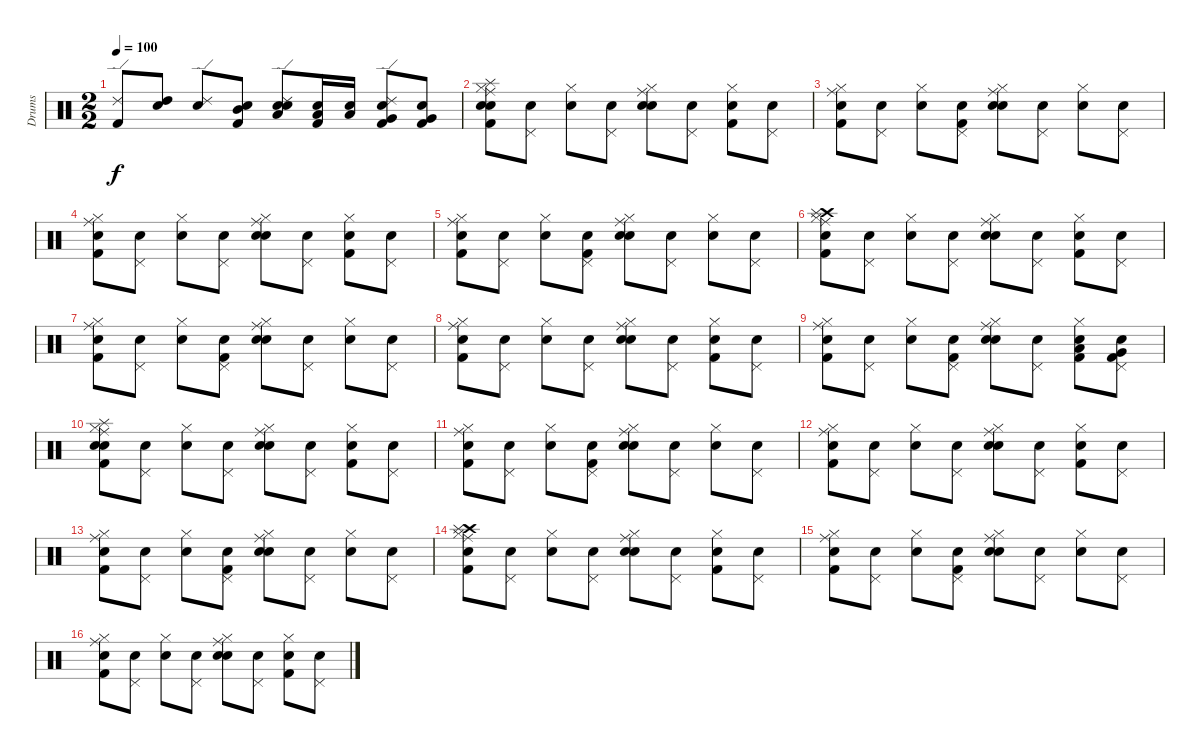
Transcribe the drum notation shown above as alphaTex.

\track ("Drums" "Drums") {instrument percussion}
\staff {score}
\articulation defaults
\ts (2 2)
\tempo 100
\clef neutral
\ks c
("Kick (hit) 2" "Ride (edge) 2").8{dy f} ("Snare (hit)" "High Tom (hit)").8 ("Snare (hit)" "Ride (edge) 2").8 ("Snare (hit)" "Mid Tom (hit)" "Kick (hit) 2").8 ("Snare (hit)" "Low Tom (hit)" "Snare (hit) 2" "Ride (edge) 2").8 ("Snare (hit)" "Low Tom (hit)" "Kick (hit) 2").16 ("Snare (hit)" "Low Tom (hit)").16 ("Snare (hit)" "Very Low Tom (hit)" "Kick (hit) 2" "Ride (edge) 2").8 ("Snare (hit)" "Very Low Tom (hit)" "Kick (hit) 2").8 |
("Snare (hit)" "Ride (middle)" "Hi-Hat (closed)" "Kick (hit) 2" "Snare (hit) 2" "Splash (hit)").8 ("Snare (hit)" "Pedal Hi-Hat (hit)").8 ("Snare (hit)" "Hi-Hat (closed)").8 ("Snare (hit)" "Pedal Hi-Hat (hit)").8 ("Snare (hit)" "Ride (middle)" "Hi-Hat (closed)" "Snare (hit) 2").8 ("Snare (hit)" "Pedal Hi-Hat (hit)").8 ("Snare (hit)" "Hi-Hat (closed)" "Kick (hit) 2").8 ("Snare (hit)" "Pedal Hi-Hat (hit)").8 |
("Snare (hit)" "Ride (middle)" "Hi-Hat (closed)" "Kick (hit) 2").8 ("Snare (hit)" "Pedal Hi-Hat (hit)").8 ("Snare (hit)" "Hi-Hat (closed)").8 ("Snare (hit)" "Pedal Hi-Hat (hit)" "Kick (hit) 2").8 ("Snare (hit)" "Ride (middle)" "Hi-Hat (closed)" "Snare (hit) 2").8 ("Snare (hit)" "Pedal Hi-Hat (hit)").8 ("Snare (hit)" "Hi-Hat (closed)").8 ("Snare (hit)" "Pedal Hi-Hat (hit)").8 |
("Snare (hit)" "Kick (hit) 2" "Ride (middle)" "Hi-Hat (closed)").8 ("Snare (hit)" "Pedal Hi-Hat (hit)").8 ("Snare (hit)" "Hi-Hat (closed)").8 ("Snare (hit)" "Pedal Hi-Hat (hit)").8 ("Snare (hit)" "Ride (middle)" "Hi-Hat (closed)" "Snare (hit) 2").8 ("Snare (hit)" "Pedal Hi-Hat (hit)").8 ("Snare (hit)" "Hi-Hat (closed)" "Kick (hit) 2").8 ("Snare (hit)" "Pedal Hi-Hat (hit)").8 |
("Snare (hit)" "Ride (middle)" "Hi-Hat (closed)" "Kick (hit) 2").8 ("Snare (hit)" "Pedal Hi-Hat (hit)").8 ("Snare (hit)" "Hi-Hat (closed)").8 ("Snare (hit)" "Pedal Hi-Hat (hit)" "Kick (hit) 2").8 ("Snare (hit)" "Ride (middle)" "Hi-Hat (closed)" "Snare (hit) 2").8 ("Snare (hit)" "Pedal Hi-Hat (hit)").8 ("Snare (hit)" "Hi-Hat (closed)").8 ("Snare (hit)" "Pedal Hi-Hat (hit)").8 |
("Snare (hit)" "Hi-Hat (closed)" "Ride (middle)" "Kick (hit) 2" "Crash high (hit)" "Splash (hit)").8 ("Snare (hit)" "Pedal Hi-Hat (hit)").8 ("Snare (hit)" "Hi-Hat (closed)").8 ("Snare (hit)" "Pedal Hi-Hat (hit)").8 ("Snare (hit)" "Ride (middle)" "Hi-Hat (closed)" "Snare (hit) 2").8 ("Snare (hit)" "Pedal Hi-Hat (hit)").8 ("Snare (hit)" "Hi-Hat (closed)" "Kick (hit) 2").8 ("Snare (hit)" "Pedal Hi-Hat (hit)").8 |
("Snare (hit)" "Ride (middle)" "Hi-Hat (closed)" "Kick (hit) 2").8 ("Snare (hit)" "Pedal Hi-Hat (hit)").8 ("Snare (hit)" "Hi-Hat (closed)").8 ("Snare (hit)" "Pedal Hi-Hat (hit)" "Kick (hit) 2").8 ("Snare (hit)" "Ride (middle)" "Hi-Hat (closed)" "Snare (hit) 2").8 ("Snare (hit)" "Pedal Hi-Hat (hit)").8 ("Snare (hit)" "Hi-Hat (closed)").8 ("Snare (hit)" "Pedal Hi-Hat (hit)").8 |
("Snare (hit)" "Kick (hit) 2" "Ride (middle)" "Hi-Hat (closed)").8 ("Snare (hit)" "Pedal Hi-Hat (hit)").8 ("Snare (hit)" "Hi-Hat (closed)").8 ("Snare (hit)" "Pedal Hi-Hat (hit)").8 ("Snare (hit)" "Ride (middle)" "Hi-Hat (closed)" "Snare (hit) 2").8 ("Snare (hit)" "Pedal Hi-Hat (hit)").8 ("Snare (hit)" "Hi-Hat (closed)" "Kick (hit) 2").8 ("Snare (hit)" "Pedal Hi-Hat (hit)").8 |
("Snare (hit)" "Ride (middle)" "Hi-Hat (closed)" "Kick (hit) 2").8 ("Snare (hit)" "Pedal Hi-Hat (hit)").8 ("Snare (hit)" "Hi-Hat (closed)").8 ("Snare (hit)" "Pedal Hi-Hat (hit)" "Kick (hit) 2").8 ("Snare (hit)" "Ride (middle)" "Hi-Hat (closed)" "Snare (hit) 2").8 ("Snare (hit)" "Pedal Hi-Hat (hit)").8 ("Snare (hit)" "Kick (hit) 2" "Low Tom (hit)" "Hi-Hat (closed)").8 ("Snare (hit)" "Very Low Tom (hit)" "Kick (hit) 2" "Pedal Hi-Hat (hit)").8 |
("Snare (hit)" "Ride (middle)" "Hi-Hat (closed)" "Kick (hit) 2" "Snare (hit) 2" "Splash (hit)").8 ("Snare (hit)" "Pedal Hi-Hat (hit)").8 ("Snare (hit)" "Hi-Hat (closed)").8 ("Snare (hit)" "Pedal Hi-Hat (hit)").8 ("Snare (hit)" "Ride (middle)" "Hi-Hat (closed)" "Snare (hit) 2").8 ("Snare (hit)" "Pedal Hi-Hat (hit)").8 ("Snare (hit)" "Hi-Hat (closed)" "Kick (hit) 2").8 ("Snare (hit)" "Pedal Hi-Hat (hit)").8 |
("Snare (hit)" "Ride (middle)" "Hi-Hat (closed)" "Kick (hit) 2").8 ("Snare (hit)" "Pedal Hi-Hat (hit)").8 ("Snare (hit)" "Hi-Hat (closed)").8 ("Snare (hit)" "Pedal Hi-Hat (hit)" "Kick (hit) 2").8 ("Snare (hit)" "Ride (middle)" "Hi-Hat (closed)" "Snare (hit) 2").8 ("Snare (hit)" "Pedal Hi-Hat (hit)").8 ("Snare (hit)" "Hi-Hat (closed)").8 ("Snare (hit)" "Pedal Hi-Hat (hit)").8 |
("Snare (hit)" "Kick (hit) 2" "Ride (middle)" "Hi-Hat (closed)").8 ("Snare (hit)" "Pedal Hi-Hat (hit)").8 ("Snare (hit)" "Hi-Hat (closed)").8 ("Snare (hit)" "Pedal Hi-Hat (hit)").8 ("Snare (hit)" "Ride (middle)" "Hi-Hat (closed)" "Snare (hit) 2").8 ("Snare (hit)" "Pedal Hi-Hat (hit)").8 ("Snare (hit)" "Hi-Hat (closed)" "Kick (hit) 2").8 ("Snare (hit)" "Pedal Hi-Hat (hit)").8 |
("Snare (hit)" "Ride (middle)" "Hi-Hat (closed)" "Kick (hit) 2").8 ("Snare (hit)" "Pedal Hi-Hat (hit)").8 ("Snare (hit)" "Hi-Hat (closed)").8 ("Snare (hit)" "Pedal Hi-Hat (hit)" "Kick (hit) 2").8 ("Snare (hit)" "Ride (middle)" "Hi-Hat (closed)" "Snare (hit) 2").8 ("Snare (hit)" "Pedal Hi-Hat (hit)").8 ("Snare (hit)" "Hi-Hat (closed)").8 ("Snare (hit)" "Pedal Hi-Hat (hit)").8 |
("Snare (hit)" "Hi-Hat (closed)" "Ride (middle)" "Kick (hit) 2" "Crash high (hit)" "Splash (hit)").8 ("Snare (hit)" "Pedal Hi-Hat (hit)").8 ("Snare (hit)" "Hi-Hat (closed)").8 ("Snare (hit)" "Pedal Hi-Hat (hit)").8 ("Snare (hit)" "Ride (middle)" "Hi-Hat (closed)" "Snare (hit) 2").8 ("Snare (hit)" "Pedal Hi-Hat (hit)").8 ("Snare (hit)" "Hi-Hat (closed)" "Kick (hit) 2").8 ("Snare (hit)" "Pedal Hi-Hat (hit)").8 |
("Snare (hit)" "Ride (middle)" "Hi-Hat (closed)" "Kick (hit) 2").8 ("Snare (hit)" "Pedal Hi-Hat (hit)").8 ("Snare (hit)" "Hi-Hat (closed)").8 ("Snare (hit)" "Pedal Hi-Hat (hit)" "Kick (hit) 2").8 ("Snare (hit)" "Ride (middle)" "Hi-Hat (closed)" "Snare (hit) 2").8 ("Snare (hit)" "Pedal Hi-Hat (hit)").8 ("Snare (hit)" "Hi-Hat (closed)").8 ("Snare (hit)" "Pedal Hi-Hat (hit)").8 |
("Snare (hit)" "Kick (hit) 2" "Ride (middle)" "Hi-Hat (closed)").8 ("Snare (hit)" "Pedal Hi-Hat (hit)").8 ("Snare (hit)" "Hi-Hat (closed)").8 ("Snare (hit)" "Pedal Hi-Hat (hit)").8 ("Snare (hit)" "Ride (middle)" "Hi-Hat (closed)" "Snare (hit) 2").8 ("Snare (hit)" "Pedal Hi-Hat (hit)").8 ("Snare (hit)" "Hi-Hat (closed)" "Kick (hit) 2").8 ("Snare (hit)" "Pedal Hi-Hat (hit)").8
